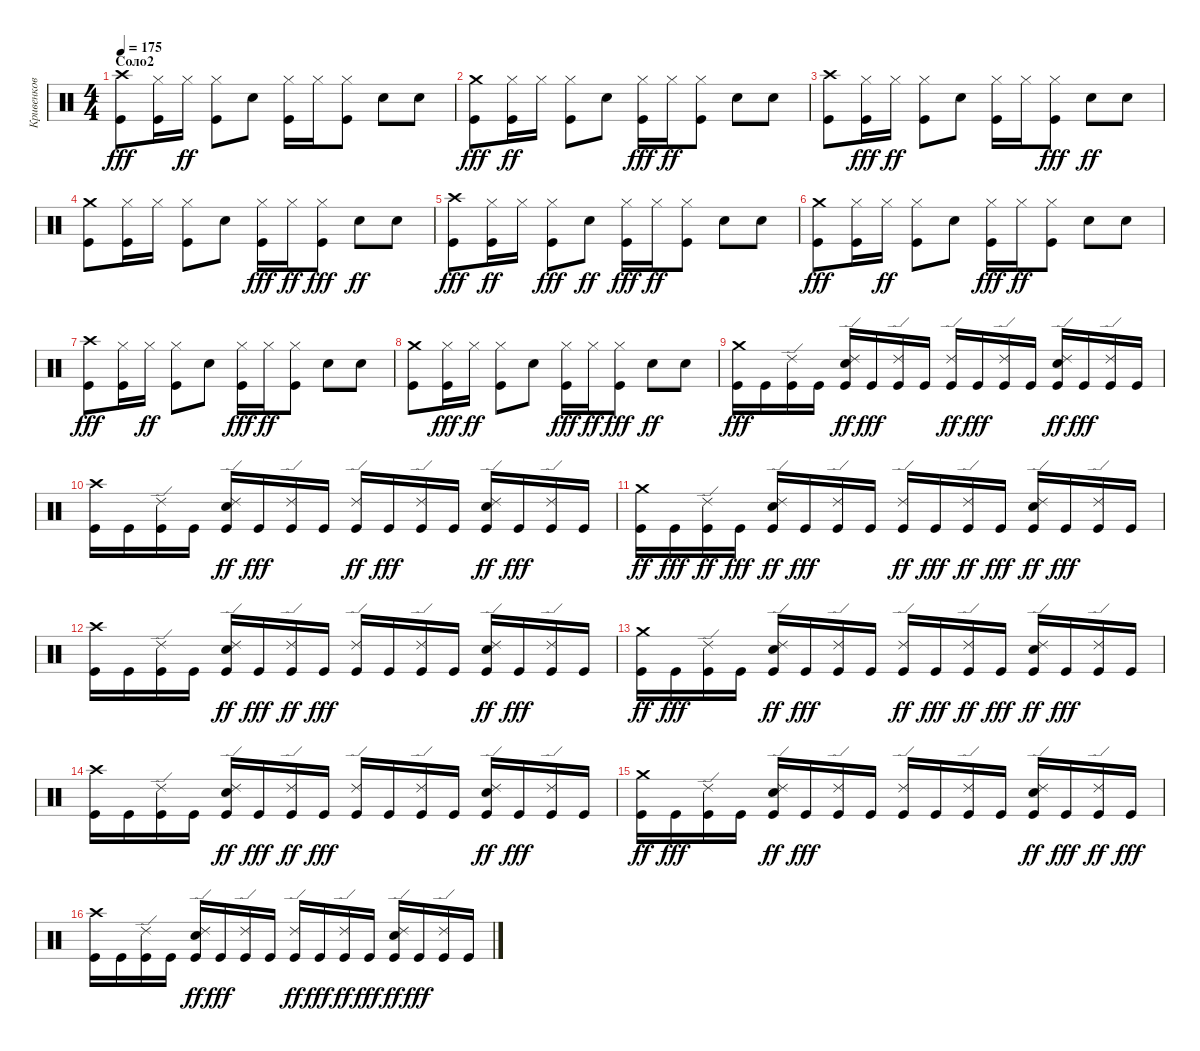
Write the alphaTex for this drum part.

\track ("Кривенков" "Кривенков") {instrument percussion}
\staff {score}
\articulation defaults
\ts (4 4)
\section ("" "Соло2")
\tempo 175
\clef neutral
\ks c
("Crash high (hit)" "Kick (hit)").8{dy fff} ("Hi-Hat (closed)" "Kick (hit)").16 "Hi-Hat (closed)".16{dy ff} ("Kick (hit)" "Hi-Hat (closed)").8 "Snare (hit) 2".8 ("Kick (hit)" "Hi-Hat (closed)").16 "Hi-Hat (closed)".16 ("Kick (hit)" "Hi-Hat (closed)").8 "Snare (hit) 2".8 "Snare (hit) 2".8 |
("Crash medium (hit)" "Kick (hit)").8{dy fff} ("Kick (hit)" "Hi-Hat (closed)").16{dy ff} "Hi-Hat (closed)".16 ("Kick (hit)" "Hi-Hat (closed)").8 "Snare (hit) 2".8 ("Hi-Hat (closed)" "Kick (hit)").16{dy fff} "Hi-Hat (closed)".16{dy ff} ("Kick (hit)" "Hi-Hat (closed)").8 "Snare (hit) 2".8 "Snare (hit) 2".8 |
("Kick (hit)" "Crash high (hit)").8 ("Hi-Hat (closed)" "Kick (hit)").16{dy fff} "Hi-Hat (closed)".16{dy ff} ("Kick (hit)" "Hi-Hat (closed)").8 "Snare (hit) 2".8 ("Kick (hit)" "Hi-Hat (closed)").16 "Hi-Hat (closed)".16 ("Hi-Hat (closed)" "Kick (hit)").8{dy fff} "Snare (hit) 2".8{dy ff} "Snare (hit) 2".8 |
("Kick (hit)" "Crash medium (hit)").8 ("Kick (hit)" "Hi-Hat (closed)").16 "Hi-Hat (closed)".16 ("Kick (hit)" "Hi-Hat (closed)").8 "Snare (hit) 2".8 ("Hi-Hat (closed)" "Kick (hit)").16{dy fff} "Hi-Hat (closed)".16{dy ff} ("Hi-Hat (closed)" "Kick (hit)").8{dy fff} "Snare (hit) 2".8{dy ff} "Snare (hit) 2".8 |
("Crash high (hit)" "Kick (hit)").8{dy fff} ("Kick (hit)" "Hi-Hat (closed)").16{dy ff} "Hi-Hat (closed)".16 ("Hi-Hat (closed)" "Kick (hit)").8{dy fff} "Snare (hit) 2".8{dy ff} ("Hi-Hat (closed)" "Kick (hit)").16{dy fff} "Hi-Hat (closed)".16{dy ff} ("Kick (hit)" "Hi-Hat (closed)").8 "Snare (hit) 2".8 "Snare (hit) 2".8 |
("Crash medium (hit)" "Kick (hit)").8{dy fff} ("Hi-Hat (closed)" "Kick (hit)").16 "Hi-Hat (closed)".16{dy ff} ("Kick (hit)" "Hi-Hat (closed)").8 "Snare (hit) 2".8 ("Hi-Hat (closed)" "Kick (hit)").16{dy fff} "Hi-Hat (closed)".16{dy ff} ("Kick (hit)" "Hi-Hat (closed)").8 "Snare (hit) 2".8 "Snare (hit) 2".8 |
("Crash high (hit)" "Kick (hit)").8{dy fff} ("Hi-Hat (closed)" "Kick (hit)").16 "Hi-Hat (closed)".16{dy ff} ("Kick (hit)" "Hi-Hat (closed)").8 "Snare (hit) 2".8 ("Hi-Hat (closed)" "Kick (hit)").16{dy fff} "Hi-Hat (closed)".16{dy ff} ("Kick (hit)" "Hi-Hat (closed)").8 "Snare (hit) 2".8 "Snare (hit) 2".8 |
("Kick (hit)" "Crash medium (hit)").8 ("Hi-Hat (closed)" "Kick (hit)").16{dy fff} "Hi-Hat (closed)".16{dy ff} ("Kick (hit)" "Hi-Hat (closed)").8 "Snare (hit) 2".8 ("Hi-Hat (closed)" "Kick (hit)").16{dy fff} "Hi-Hat (closed)".16{dy ff} ("Hi-Hat (closed)" "Kick (hit)").8{dy fff} "Snare (hit) 2".8{dy ff} "Snare (hit) 2".8 |
("Crash medium (hit)" "Kick (hit)").16{dy fff} "Kick (hit)".16 ("Ride (edge) 2" "Kick (hit)").16 "Kick (hit)".16 ("Ride (edge) 2" "Kick (hit)" "Snare (hit) 2").16{dy ff} "Kick (hit)".16{dy fff} ("Ride (edge) 2" "Kick (hit)").16 "Kick (hit)".16 ("Kick (hit)" "Ride (edge) 2").16{dy ff} "Kick (hit)".16{dy fff} ("Ride (edge) 2" "Kick (hit)").16 "Kick (hit)".16 ("Ride (edge) 2" "Kick (hit)" "Snare (hit) 2").16{dy ff} "Kick (hit)".16{dy fff} ("Ride (edge) 2" "Kick (hit)").16 "Kick (hit)".16 |
("Crash high (hit)" "Kick (hit)").16 "Kick (hit)".16 ("Ride (edge) 2" "Kick (hit)").16 "Kick (hit)".16 ("Ride (edge) 2" "Kick (hit)" "Snare (hit) 2").16{dy ff} "Kick (hit)".16{dy fff} ("Ride (edge) 2" "Kick (hit)").16 "Kick (hit)".16 ("Kick (hit)" "Ride (edge) 2").16{dy ff} "Kick (hit)".16{dy fff} ("Ride (edge) 2" "Kick (hit)").16 "Kick (hit)".16 ("Ride (edge) 2" "Kick (hit)" "Snare (hit) 2").16{dy ff} "Kick (hit)".16{dy fff} ("Ride (edge) 2" "Kick (hit)").16 "Kick (hit)".16 |
("Kick (hit)" "Crash medium (hit)").16{dy ff} "Kick (hit)".16{dy fff} ("Kick (hit)" "Ride (edge) 2").16{dy ff} "Kick (hit)".16{dy fff} ("Kick (hit)" "Ride (edge) 2" "Snare (hit) 2").16{dy ff} "Kick (hit)".16{dy fff} ("Ride (edge) 2" "Kick (hit)").16 "Kick (hit)".16 ("Kick (hit)" "Ride (edge) 2").16{dy ff} "Kick (hit)".16{dy fff} ("Kick (hit)" "Ride (edge) 2").16{dy ff} "Kick (hit)".16{dy fff} ("Kick (hit)" "Ride (edge) 2" "Snare (hit) 2").16{dy ff} "Kick (hit)".16{dy fff} ("Ride (edge) 2" "Kick (hit)").16 "Kick (hit)".16 |
("Kick (hit)" "Crash high (hit)").16 "Kick (hit)".16 ("Ride (edge) 2" "Kick (hit)").16 "Kick (hit)".16 ("Ride (edge) 2" "Kick (hit)" "Snare (hit) 2").16{dy ff} "Kick (hit)".16{dy fff} ("Kick (hit)" "Ride (edge) 2").16{dy ff} "Kick (hit)".16{dy fff} ("Ride (edge) 2" "Kick (hit)").16 "Kick (hit)".16 ("Ride (edge) 2" "Kick (hit)").16 "Kick (hit)".16 ("Kick (hit)" "Ride (edge) 2" "Snare (hit) 2").16{dy ff} "Kick (hit)".16{dy fff} ("Ride (edge) 2" "Kick (hit)").16 "Kick (hit)".16 |
("Kick (hit)" "Crash medium (hit)").16{dy ff} "Kick (hit)".16{dy fff} ("Ride (edge) 2" "Kick (hit)").16 "Kick (hit)".16 ("Kick (hit)" "Ride (edge) 2" "Snare (hit) 2").16{dy ff} "Kick (hit)".16{dy fff} ("Ride (edge) 2" "Kick (hit)").16 "Kick (hit)".16 ("Kick (hit)" "Ride (edge) 2").16{dy ff} "Kick (hit)".16{dy fff} ("Kick (hit)" "Ride (edge) 2").16{dy ff} "Kick (hit)".16{dy fff} ("Kick (hit)" "Ride (edge) 2" "Snare (hit) 2").16{dy ff} "Kick (hit)".16{dy fff} ("Ride (edge) 2" "Kick (hit)").16 "Kick (hit)".16 |
("Kick (hit)" "Crash high (hit)").16 "Kick (hit)".16 ("Ride (edge) 2" "Kick (hit)").16 "Kick (hit)".16 ("Ride (edge) 2" "Kick (hit)" "Snare (hit) 2").16{dy ff} "Kick (hit)".16{dy fff} ("Kick (hit)" "Ride (edge) 2").16{dy ff} "Kick (hit)".16{dy fff} ("Ride (edge) 2" "Kick (hit)").16 "Kick (hit)".16 ("Ride (edge) 2" "Kick (hit)").16 "Kick (hit)".16 ("Kick (hit)" "Ride (edge) 2" "Snare (hit) 2").16{dy ff} "Kick (hit)".16{dy fff} ("Ride (edge) 2" "Kick (hit)").16 "Kick (hit)".16 |
("Kick (hit)" "Crash medium (hit)").16{dy ff} "Kick (hit)".16{dy fff} ("Ride (edge) 2" "Kick (hit)").16 "Kick (hit)".16 ("Ride (edge) 2" "Kick (hit)" "Snare (hit) 2").16{dy ff} "Kick (hit)".16{dy fff} ("Ride (edge) 2" "Kick (hit)").16 "Kick (hit)".16 ("Ride (edge) 2" "Kick (hit)").16 "Kick (hit)".16 ("Ride (edge) 2" "Kick (hit)").16 "Kick (hit)".16 ("Ride (edge) 2" "Kick (hit)" "Snare (hit) 2").16{dy ff} "Kick (hit)".16{dy fff} ("Kick (hit)" "Ride (edge) 2").16{dy ff} "Kick (hit)".16{dy fff} |
("Crash high (hit)" "Kick (hit)").16 "Kick (hit)".16 ("Ride (edge) 2" "Kick (hit)").16 "Kick (hit)".16 ("Kick (hit)" "Ride (edge) 2" "Snare (hit) 2").16{dy ff} "Kick (hit)".16{dy fff} ("Ride (edge) 2" "Kick (hit)").16 "Kick (hit)".16 ("Kick (hit)" "Ride (edge) 2").16{dy ff} "Kick (hit)".16{dy fff} ("Kick (hit)" "Ride (edge) 2").16{dy ff} "Kick (hit)".16{dy fff} ("Ride (edge) 2" "Kick (hit)" "Snare (hit) 2").16{dy ff} "Kick (hit)".16{dy fff} ("Ride (edge) 2" "Kick (hit)").16 "Kick (hit)".16
